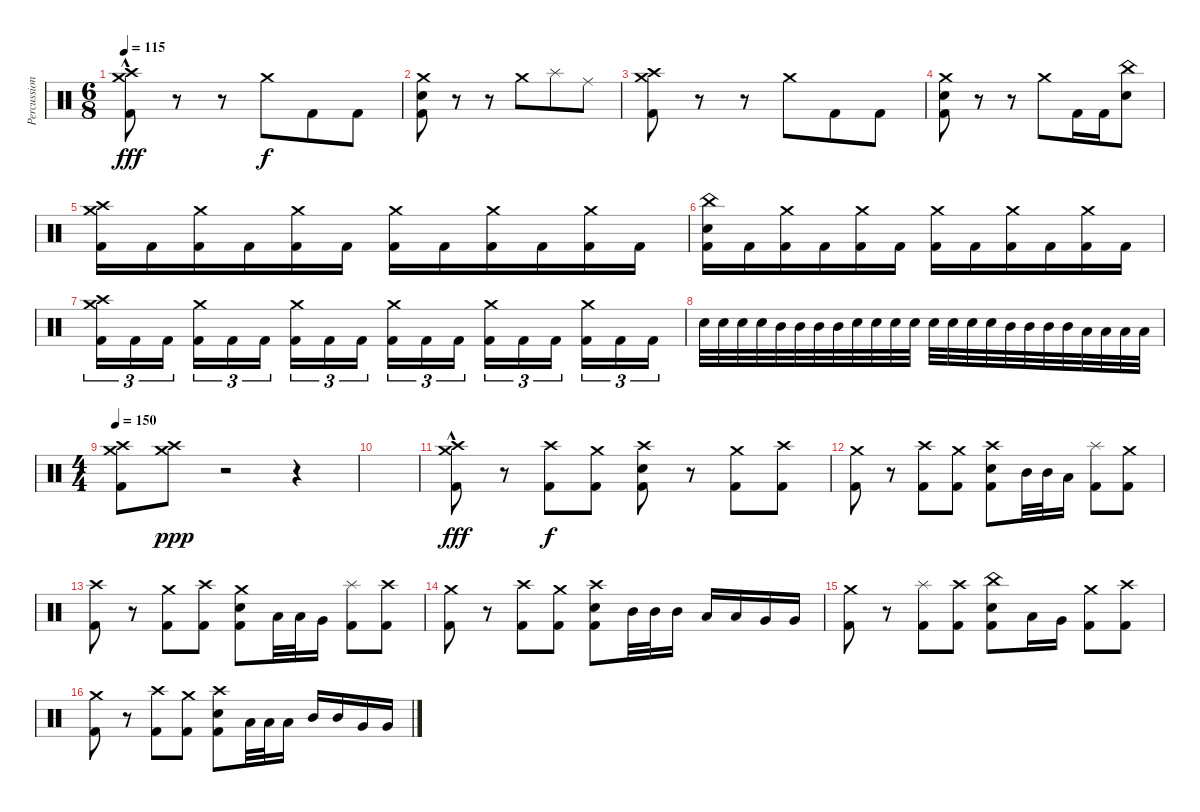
\track ("Percussion" "Percussion") {instrument percussion}
\staff {score}
\articulation defaults
\ts (6 8)
\tempo 115
\clef neutral
\ks c
("Crash medium (hit)"{hac} "Crash high (hit)"{hac} "Kick (hit) 2"{hac}).8{dy fff} r.8 r.8 "Crash medium (hit)".8{dy f} "Kick (hit) 2".8 "Kick (hit) 2".8 |
("Crash medium (hit)" "Electric Snare (hit)" "Kick (hit) 2").8 r.8 r.8 "Crash medium (hit)".8 "Splash (hit)".8 "Ride (middle)".8 |
("Crash medium (hit)" "Crash high (hit)" "Kick (hit) 2").8 r.8 r.8 "Crash medium (hit)".8 "Kick (hit) 2".8 "Kick (hit) 2".8 |
("Crash medium (hit)" "Electric Snare (hit)" "Kick (hit) 2").8 r.8 r.8 "Crash medium (hit)".8 "Kick (hit) 2".16 "Kick (hit) 2".16 ("China (hit)" "Electric Snare (hit)").8 |
("Crash medium (hit)" "Crash high (hit)" "Kick (hit) 2").16 "Kick (hit) 2".16 ("Crash medium (hit)" "Kick (hit) 2").16 "Kick (hit) 2".16 ("Crash medium (hit)" "Kick (hit) 2").16 "Kick (hit) 2".16 ("Crash medium (hit)" "Kick (hit) 2").16 "Kick (hit) 2".16 ("Crash medium (hit)" "Kick (hit) 2").16 "Kick (hit) 2".16 ("Crash medium (hit)" "Kick (hit) 2").16 "Kick (hit) 2".16 |
("China (hit)" "Electric Snare (hit)" "Kick (hit) 2").16 "Kick (hit) 2".16 ("Crash medium (hit)" "Kick (hit) 2").16 "Kick (hit) 2".16 ("Crash medium (hit)" "Kick (hit) 2").16 "Kick (hit) 2".16 ("Crash medium (hit)" "Kick (hit) 2").16 "Kick (hit) 2".16 ("Crash medium (hit)" "Kick (hit) 2").16 "Kick (hit) 2".16 ("Crash medium (hit)" "Kick (hit) 2").16 "Kick (hit) 2".16 |
("Crash medium (hit)" "Crash high (hit)" "Kick (hit) 2").16{tu (3 2)} "Kick (hit) 2".16{tu (3 2)} "Kick (hit) 2".16{tu (3 2) beam splitsecondary} ("Crash medium (hit)" "Kick (hit) 2").16{tu (3 2)} "Kick (hit) 2".16{tu (3 2)} "Kick (hit) 2".16{tu (3 2) beam splitsecondary} ("Crash medium (hit)" "Kick (hit) 2").16{tu (3 2)} "Kick (hit) 2".16{tu (3 2)} "Kick (hit) 2".16{tu (3 2)} ("Crash medium (hit)" "Kick (hit) 2").16{tu (3 2)} "Kick (hit) 2".16{tu (3 2)} "Kick (hit) 2".16{tu (3 2) beam splitsecondary} ("Crash medium (hit)" "Kick (hit) 2").16{tu (3 2)} "Kick (hit) 2".16{tu (3 2)} "Kick (hit) 2".16{tu (3 2) beam splitsecondary} ("Crash medium (hit)" "Kick (hit) 2").16{tu (3 2)} "Kick (hit) 2".16{tu (3 2)} "Kick (hit) 2".16{tu (3 2)} |
"Electric Snare (hit)".32 "Electric Snare (hit)".32 "Electric Snare (hit)".32 "Electric Snare (hit)".32 "Mid Tom (hit)".32 "Mid Tom (hit)".32 "Mid Tom (hit)".32 "Mid Tom (hit)".32 "Electric Snare (hit)".32 "Electric Snare (hit)".32 "Electric Snare (hit)".32 "Electric Snare (hit)".32 "Electric Snare (hit)".32 "Electric Snare (hit)".32 "Electric Snare (hit)".32 "Electric Snare (hit)".32 "Mid Tom (hit)".32 "Mid Tom (hit)".32 "Mid Tom (hit)".32 "Mid Tom (hit)".32 "Low Tom (hit)".32 "Low Tom (hit)".32 "Low Tom (hit)".32 "Low Tom (hit)".32 |
\ts (4 4)
\tempo 150
("Crash medium (hit)" "Crash high (hit)" "Kick (hit) 2").8 ("Crash medium (hit)" "Crash high (hit)").8{dy ppp} r.2 r.4 |
|
("Crash medium (hit)"{hac} "Crash high (hit)"{hac} "Kick (hit) 2"{hac}).8{dy fff} r.8 ("Crash high (hit)" "Kick (hit) 2").8{dy f} ("Crash medium (hit)" "Kick (hit) 2").8 ("Crash high (hit)" "Electric Snare (hit)" "Kick (hit) 2").8 r.8 ("Crash medium (hit)" "Kick (hit) 2").8 ("Crash high (hit)" "Kick (hit) 2").8 |
("Crash medium (hit)" "Kick (hit) 2").8 r.8 ("Crash high (hit)" "Kick (hit) 2").8 ("Crash medium (hit)" "Kick (hit) 2").8 ("Crash high (hit)" "Electric Snare (hit)" "Kick (hit) 2").8 "Mid Tom (hit)".32 "Mid Tom (hit)".32 "Low Tom (hit)".16 ("Splash (hit)" "Kick (hit) 2").8 ("Crash medium (hit)" "Kick (hit) 2").8 |
("Crash high (hit)" "Kick (hit) 2").8 r.8 ("Crash medium (hit)" "Kick (hit) 2").8 ("Crash high (hit)" "Kick (hit) 2").8 ("Crash medium (hit)" "Electric Snare (hit)" "Kick (hit) 2").8 "Low Tom (hit)".32 "Low Tom (hit)".32 "Very Low Tom (hit)".16 ("Splash (hit)" "Kick (hit) 2").8 ("Crash high (hit)" "Kick (hit) 2").8 |
("Crash medium (hit)" "Kick (hit) 2").8 r.8 ("Crash high (hit)" "Kick (hit) 2").8 ("Crash medium (hit)" "Kick (hit) 2").8 ("Crash high (hit)" "Electric Snare (hit)" "Kick (hit) 2").8 "Mid Tom (hit)".32 "Mid Tom (hit)".32 "Mid Tom (hit)".16 "Low Tom (hit)".16 "Low Tom (hit)".16 "Very Low Tom (hit)".16 "Very Low Tom (hit)".16 |
("Crash medium (hit)" "Kick (hit) 2").8 r.8 ("Splash (hit)" "Kick (hit) 2").8 ("Crash high (hit)" "Kick (hit) 2").8 ("China (hit)" "Electric Snare (hit)" "Kick (hit) 2").8 "Low Tom (hit)".16 "Very Low Tom (hit)".16 ("Crash medium (hit)" "Kick (hit) 2").8 ("Crash high (hit)" "Kick (hit) 2").8 |
("Crash medium (hit)" "Kick (hit) 2").8 r.8 ("Crash high (hit)" "Kick (hit) 2").8 ("Crash medium (hit)" "Kick (hit) 2").8 ("Crash high (hit)" "Electric Snare (hit)" "Kick (hit) 2").8 "Low Tom (hit)".32 "Low Tom (hit)".32 "Low Tom (hit)".16 "Mid Tom (hit)".16 "Mid Tom (hit)".16 "Very Low Tom (hit)".16 "Very Low Tom (hit)".16
